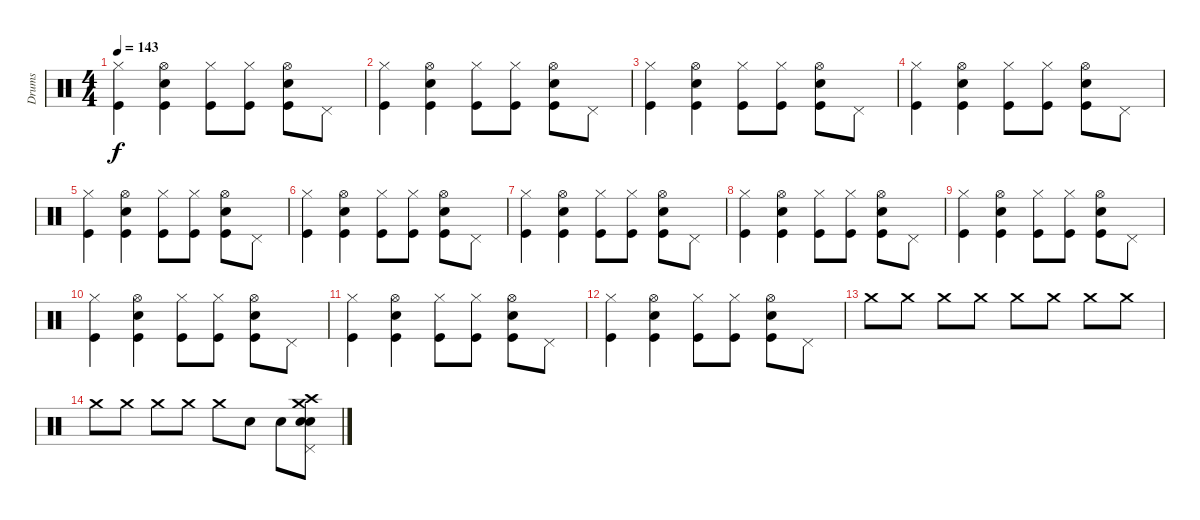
\track ("Drums" "Drums") {instrument percussion}
\staff {score}
\articulation defaults
\ts (4 4)
\tempo 143
\clef neutral
\ks c
("Hi-Hat (closed)" "Kick (hit)").4{dy f} ("Snare (hit) 2" "Hi-Hat (open)" "Kick (hit)").4 ("Hi-Hat (closed)" "Kick (hit)").8 ("Hi-Hat (closed)" "Kick (hit)").8 ("Snare (hit) 2" "Hi-Hat (open)" "Kick (hit)").8 "Pedal Hi-Hat (hit)".8 |
("Hi-Hat (closed)" "Kick (hit)").4 ("Snare (hit) 2" "Hi-Hat (open)" "Kick (hit)").4 ("Hi-Hat (closed)" "Kick (hit)").8 ("Hi-Hat (closed)" "Kick (hit)").8 ("Snare (hit) 2" "Hi-Hat (open)" "Kick (hit)").8 "Pedal Hi-Hat (hit)".8 |
("Hi-Hat (closed)" "Kick (hit)").4 ("Snare (hit) 2" "Hi-Hat (open)" "Kick (hit)").4 ("Hi-Hat (closed)" "Kick (hit)").8 ("Hi-Hat (closed)" "Kick (hit)").8 ("Snare (hit) 2" "Hi-Hat (open)" "Kick (hit)").8 "Pedal Hi-Hat (hit)".8 |
("Hi-Hat (closed)" "Kick (hit)").4 ("Snare (hit) 2" "Hi-Hat (open)" "Kick (hit)").4 ("Hi-Hat (closed)" "Kick (hit)").8 ("Hi-Hat (closed)" "Kick (hit)").8 ("Snare (hit) 2" "Hi-Hat (open)" "Kick (hit)").8 "Pedal Hi-Hat (hit)".8 |
("Hi-Hat (closed)" "Kick (hit)").4 ("Snare (hit) 2" "Hi-Hat (open)" "Kick (hit)").4 ("Hi-Hat (closed)" "Kick (hit)").8 ("Hi-Hat (closed)" "Kick (hit)").8 ("Snare (hit) 2" "Hi-Hat (open)" "Kick (hit)").8 "Pedal Hi-Hat (hit)".8 |
("Hi-Hat (closed)" "Kick (hit)").4 ("Snare (hit) 2" "Hi-Hat (open)" "Kick (hit)").4 ("Hi-Hat (closed)" "Kick (hit)").8 ("Hi-Hat (closed)" "Kick (hit)").8 ("Snare (hit) 2" "Hi-Hat (open)" "Kick (hit)").8 "Pedal Hi-Hat (hit)".8 |
("Hi-Hat (closed)" "Kick (hit)").4 ("Snare (hit) 2" "Hi-Hat (open)" "Kick (hit)").4 ("Hi-Hat (closed)" "Kick (hit)").8 ("Hi-Hat (closed)" "Kick (hit)").8 ("Snare (hit) 2" "Hi-Hat (open)" "Kick (hit)").8 "Pedal Hi-Hat (hit)".8 |
("Hi-Hat (closed)" "Kick (hit)").4 ("Snare (hit) 2" "Hi-Hat (open)" "Kick (hit)").4 ("Hi-Hat (closed)" "Kick (hit)").8 ("Hi-Hat (closed)" "Kick (hit)").8 ("Snare (hit) 2" "Hi-Hat (open)" "Kick (hit)").8 "Pedal Hi-Hat (hit)".8 |
("Hi-Hat (closed)" "Kick (hit)").4 ("Snare (hit) 2" "Hi-Hat (open)" "Kick (hit)").4 ("Hi-Hat (closed)" "Kick (hit)").8 ("Hi-Hat (closed)" "Kick (hit)").8 ("Snare (hit) 2" "Hi-Hat (open)" "Kick (hit)").8 "Pedal Hi-Hat (hit)".8 |
("Hi-Hat (closed)" "Kick (hit)").4 ("Snare (hit) 2" "Hi-Hat (open)" "Kick (hit)").4 ("Hi-Hat (closed)" "Kick (hit)").8 ("Hi-Hat (closed)" "Kick (hit)").8 ("Snare (hit) 2" "Hi-Hat (open)" "Kick (hit)").8 "Pedal Hi-Hat (hit)".8 |
("Hi-Hat (closed)" "Kick (hit)").4 ("Snare (hit) 2" "Hi-Hat (open)" "Kick (hit)").4 ("Hi-Hat (closed)" "Kick (hit)").8 ("Hi-Hat (closed)" "Kick (hit)").8 ("Snare (hit) 2" "Hi-Hat (open)" "Kick (hit)").8 "Pedal Hi-Hat (hit)".8 |
("Hi-Hat (closed)" "Kick (hit)").4 ("Snare (hit) 2" "Hi-Hat (open)" "Kick (hit)").4 ("Hi-Hat (closed)" "Kick (hit)").8 ("Hi-Hat (closed)" "Kick (hit)").8 ("Snare (hit) 2" "Hi-Hat (open)" "Kick (hit)").8 "Pedal Hi-Hat (hit)".8 |
"Crash medium (hit)".8 "Crash medium (hit)".8 "Crash medium (hit)".8 "Crash medium (hit)".8 "Crash medium (hit)".8 "Crash medium (hit)".8 "Crash medium (hit)".8 "Crash medium (hit)".8 |
"Crash medium (hit)".8 "Crash medium (hit)".8 "Crash medium (hit)".8 "Crash medium (hit)".8 "Crash medium (hit)".8 "Snare (hit)".8 "Snare (hit)".8 ("Pedal Hi-Hat (hit)" "Crash high (hit)" "Snare (hit) 2" "Electric Snare (hit)" "Crash medium (hit)").8
